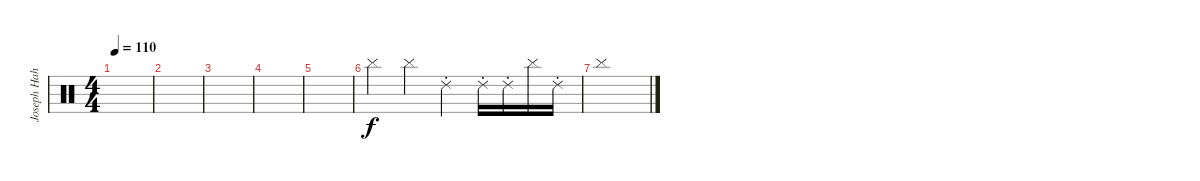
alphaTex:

\track ("Joseph Hahn (Turntables)" "Joseph Hah") {instrument percussion}
\staff {score}
\articulation defaults
\ts (4 4)
\tempo 110
\clef neutral
\ks c
|
|
|
|
|
"Cymbal (hit)".4 "Cymbal (hit)".4 "Ride (choke) 2".4 "Ride (choke) 2".16 "Ride (choke) 2".16 "Cymbal (hit)".16 "Ride (choke) 2".16 |
"Cymbal (hit)".1
